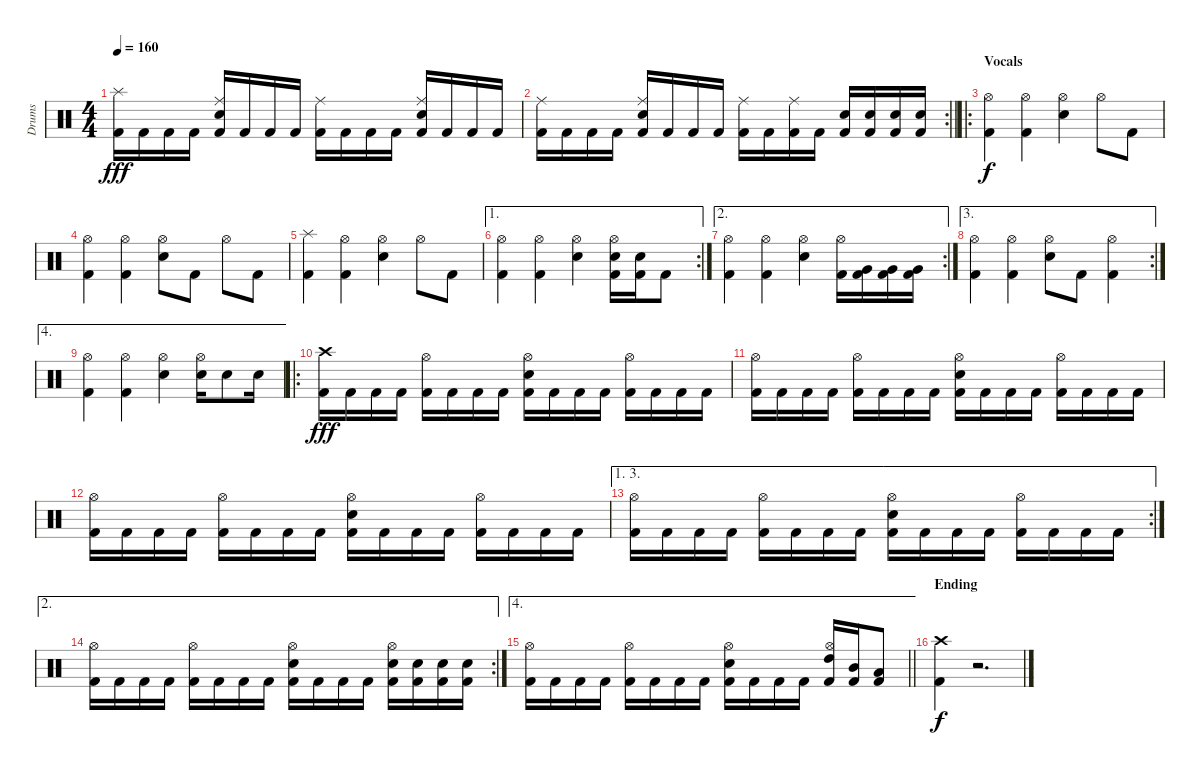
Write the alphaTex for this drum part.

\track ("Drums" "Drums") {instrument percussion}
\staff {score}
\articulation defaults
\ts (4 4)
\tempo 160
\clef neutral
\ks c
("Splash (hit)" "Kick (hit) 2").16{dy fff} "Kick (hit) 2".16 "Kick (hit) 2".16 "Kick (hit) 2".16 ("Ride (middle)" "Electric Snare (hit)" "Kick (hit) 2").16 "Kick (hit) 2".16 "Kick (hit) 2".16 "Kick (hit) 2".16 ("Ride (middle)" "Kick (hit) 2").16 "Kick (hit) 2".16 "Kick (hit) 2".16 "Kick (hit) 2".16 ("Ride (middle)" "Electric Snare (hit)" "Kick (hit) 2").16 "Kick (hit) 2".16 "Kick (hit) 2".16 "Kick (hit) 2".16 |
\rc 2
\barLineRight lightlight
("Ride (middle)" "Kick (hit) 2").16 "Kick (hit) 2".16 "Kick (hit) 2".16 "Kick (hit) 2".16 ("Ride (middle)" "Electric Snare (hit)" "Kick (hit) 2").16 "Kick (hit) 2".16 "Kick (hit) 2".16 "Kick (hit) 2".16 ("Ride (middle)" "Kick (hit) 2").16 "Kick (hit) 2".16 ("Ride (middle)" "Kick (hit) 2").16 "Kick (hit) 2".16 ("Electric Snare (hit)" "Kick (hit) 2").16 ("Electric Snare (hit)" "Kick (hit) 2").16 ("Electric Snare (hit)" "Kick (hit) 2").16 ("Electric Snare (hit)" "Kick (hit) 2").16 |
\ro
\section ("" "Vocals")
("Hi-Hat (open)" "Kick (hit) 2").4{dy f} ("Hi-Hat (open)" "Kick (hit) 2").4 ("Hi-Hat (open)" "Electric Snare (hit)").4 "Hi-Hat (open)".8 "Kick (hit) 2".8 |
("Hi-Hat (open)" "Kick (hit) 2").4 ("Hi-Hat (open)" "Kick (hit) 2").4 ("Hi-Hat (open)" "Electric Snare (hit)").8 "Kick (hit) 2".8 "Hi-Hat (open)".8 "Kick (hit) 2".8 |
("Splash (hit)" "Kick (hit) 2").4 ("Hi-Hat (open)" "Kick (hit) 2").4 ("Hi-Hat (open)" "Electric Snare (hit)").4 "Hi-Hat (open)".8 "Kick (hit) 2".8 |
\ae 1
\rc 2
("Hi-Hat (open)" "Kick (hit) 2").4 ("Hi-Hat (open)" "Kick (hit) 2").4 ("Hi-Hat (open)" "Electric Snare (hit)").4 ("Electric Snare (hit)" "Hi-Hat (open)" "Kick (hit) 2").16 ("Electric Snare (hit)" "Kick (hit) 2").16 "Kick (hit) 2".8 |
\ae 2
\rc 2
("Hi-Hat (open)" "Kick (hit) 2").4 ("Hi-Hat (open)" "Kick (hit) 2").4 ("Hi-Hat (open)" "Electric Snare (hit)").4 ("Hi-Hat (open)" "Kick (hit) 2").16 ("Very Low Tom (hit)" "Kick (hit) 2").16 ("Very Low Tom (hit)" "Kick (hit) 2").16 ("Very Low Tom (hit)" "Kick (hit) 2").16 |
\ae 3
\rc 2
("Hi-Hat (open)" "Kick (hit) 2").4 ("Hi-Hat (open)" "Kick (hit) 2").4 ("Hi-Hat (open)" "Electric Snare (hit)").8 "Kick (hit) 2".8 ("Hi-Hat (open)" "Kick (hit) 2").4 |
\ae 4
("Hi-Hat (open)" "Kick (hit) 2").4 ("Hi-Hat (open)" "Kick (hit) 2").4 ("Hi-Hat (open)" "Electric Snare (hit)").4 ("Hi-Hat (open)" "Electric Snare (hit)").16 "Electric Snare (hit)".8 "Electric Snare (hit)".16 |
\ro
("Crash high (hit)" "Kick (hit) 2").16{dy fff} "Kick (hit) 2".16 "Kick (hit) 2".16 "Kick (hit) 2".16 ("Hi-Hat (open)" "Kick (hit) 2").16 "Kick (hit) 2".16 "Kick (hit) 2".16 "Kick (hit) 2".16 ("Hi-Hat (open)" "Electric Snare (hit)" "Kick (hit) 2").16 "Kick (hit) 2".16 "Kick (hit) 2".16 "Kick (hit) 2".16 ("Hi-Hat (open)" "Kick (hit) 2").16 "Kick (hit) 2".16 "Kick (hit) 2".16 "Kick (hit) 2".16 |
("Hi-Hat (open)" "Kick (hit) 2").16 "Kick (hit) 2".16 "Kick (hit) 2".16 "Kick (hit) 2".16 ("Hi-Hat (open)" "Kick (hit) 2").16 "Kick (hit) 2".16 "Kick (hit) 2".16 "Kick (hit) 2".16 ("Hi-Hat (open)" "Electric Snare (hit)" "Kick (hit) 2").16 "Kick (hit) 2".16 "Kick (hit) 2".16 "Kick (hit) 2".16 ("Hi-Hat (open)" "Kick (hit) 2").16 "Kick (hit) 2".16 "Kick (hit) 2".16 "Kick (hit) 2".16 |
("Hi-Hat (open)" "Kick (hit) 2").16 "Kick (hit) 2".16 "Kick (hit) 2".16 "Kick (hit) 2".16 ("Hi-Hat (open)" "Kick (hit) 2").16 "Kick (hit) 2".16 "Kick (hit) 2".16 "Kick (hit) 2".16 ("Hi-Hat (open)" "Electric Snare (hit)" "Kick (hit) 2").16 "Kick (hit) 2".16 "Kick (hit) 2".16 "Kick (hit) 2".16 ("Hi-Hat (open)" "Kick (hit) 2").16 "Kick (hit) 2".16 "Kick (hit) 2".16 "Kick (hit) 2".16 |
\ae (1 3)
\rc 2
("Hi-Hat (open)" "Kick (hit) 2").16 "Kick (hit) 2".16 "Kick (hit) 2".16 "Kick (hit) 2".16 ("Hi-Hat (open)" "Kick (hit) 2").16 "Kick (hit) 2".16 "Kick (hit) 2".16 "Kick (hit) 2".16 ("Hi-Hat (open)" "Electric Snare (hit)" "Kick (hit) 2").16 "Kick (hit) 2".16 "Kick (hit) 2".16 "Kick (hit) 2".16 ("Hi-Hat (open)" "Kick (hit) 2").16 "Kick (hit) 2".16 "Kick (hit) 2".16 "Kick (hit) 2".16 |
\ae 2
\rc 2
("Hi-Hat (open)" "Kick (hit) 2").16 "Kick (hit) 2".16 "Kick (hit) 2".16 "Kick (hit) 2".16 ("Hi-Hat (open)" "Kick (hit) 2").16 "Kick (hit) 2".16 "Kick (hit) 2".16 "Kick (hit) 2".16 ("Hi-Hat (open)" "Electric Snare (hit)" "Kick (hit) 2").16 "Kick (hit) 2".16 "Kick (hit) 2".16 "Kick (hit) 2".16 ("Hi-Hat (open)" "Electric Snare (hit)" "Kick (hit) 2").16 ("Electric Snare (hit)" "Kick (hit) 2").16 ("Electric Snare (hit)" "Kick (hit) 2").16 ("Electric Snare (hit)" "Kick (hit) 2").16 |
\ae 4
\barLineRight lightlight
("Hi-Hat (open)" "Kick (hit) 2").16 "Kick (hit) 2".16 "Kick (hit) 2".16 "Kick (hit) 2".16 ("Hi-Hat (open)" "Kick (hit) 2").16 "Kick (hit) 2".16 "Kick (hit) 2".16 "Kick (hit) 2".16 ("Hi-Hat (open)" "Electric Snare (hit)" "Kick (hit) 2").16 "Kick (hit) 2".16 "Kick (hit) 2".16 "Kick (hit) 2".16 ("Hi-Hat (open)" "High Tom (hit)" "Kick (hit) 2").16 ("Mid Tom (hit)" "Kick (hit) 2").16 ("Low Tom (hit)" "Kick (hit) 2").8 |
\section ("" "Ending")
("Crash high (hit)" "Kick (hit) 2").4{dy f} r.2{d}
